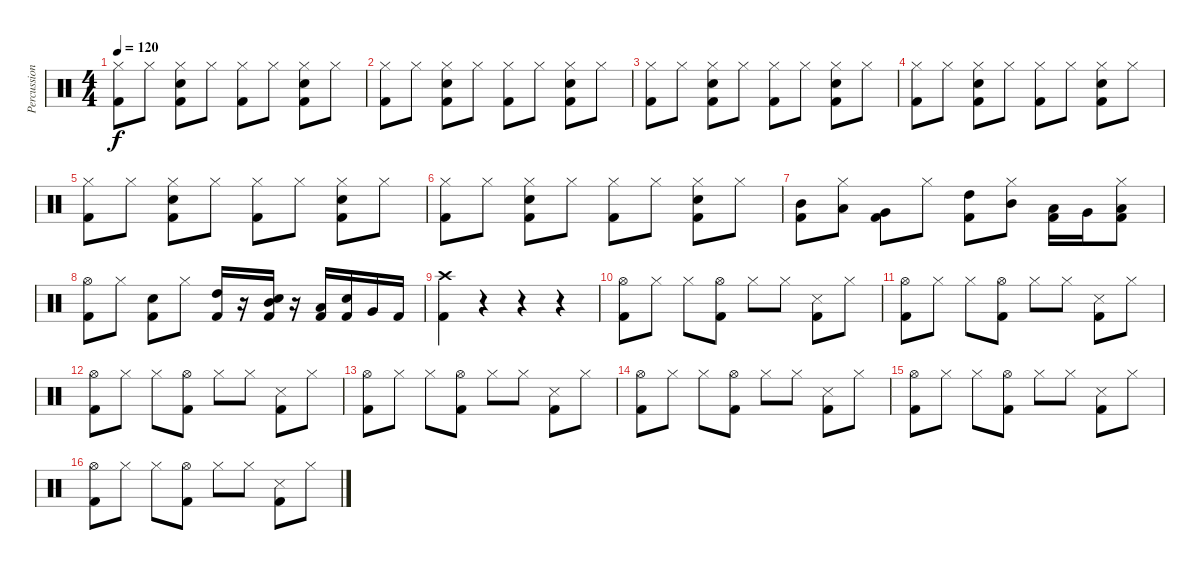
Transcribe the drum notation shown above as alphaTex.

\track ("Percussion" "Percussion") {instrument percussion}
\staff {score}
\articulation defaults
\ts (4 4)
\tempo 120
\clef neutral
\ks c
("Hi-Hat (closed)" "Kick (hit) 2").8{dy f} "Hi-Hat (closed)".8 ("Hi-Hat (closed)" "Snare (hit) 2" "Kick (hit) 2").8 "Hi-Hat (closed)".8 ("Hi-Hat (closed)" "Kick (hit) 2").8 "Hi-Hat (closed)".8 ("Hi-Hat (closed)" "Snare (hit) 2" "Kick (hit) 2").8 "Hi-Hat (closed)".8 |
("Hi-Hat (closed)" "Kick (hit) 2").8 "Hi-Hat (closed)".8 ("Hi-Hat (closed)" "Snare (hit) 2" "Kick (hit) 2").8 "Hi-Hat (closed)".8 ("Hi-Hat (closed)" "Kick (hit) 2").8 "Hi-Hat (closed)".8 ("Hi-Hat (closed)" "Snare (hit) 2" "Kick (hit) 2").8 "Hi-Hat (closed)".8 |
("Hi-Hat (closed)" "Kick (hit) 2").8 "Hi-Hat (closed)".8 ("Hi-Hat (closed)" "Snare (hit) 2" "Kick (hit) 2").8 "Hi-Hat (closed)".8 ("Hi-Hat (closed)" "Kick (hit) 2").8 "Hi-Hat (closed)".8 ("Hi-Hat (closed)" "Snare (hit) 2" "Kick (hit) 2").8 "Hi-Hat (closed)".8 |
("Hi-Hat (closed)" "Kick (hit) 2").8 "Hi-Hat (closed)".8 ("Hi-Hat (closed)" "Snare (hit) 2" "Kick (hit) 2").8 "Hi-Hat (closed)".8 ("Hi-Hat (closed)" "Kick (hit) 2").8 "Hi-Hat (closed)".8 ("Hi-Hat (closed)" "Snare (hit) 2" "Kick (hit) 2").8 "Hi-Hat (closed)".8 |
("Hi-Hat (closed)" "Kick (hit) 2").8 "Hi-Hat (closed)".8 ("Hi-Hat (closed)" "Snare (hit) 2" "Kick (hit) 2").8 "Hi-Hat (closed)".8 ("Hi-Hat (closed)" "Kick (hit) 2").8 "Hi-Hat (closed)".8 ("Hi-Hat (closed)" "Snare (hit) 2" "Kick (hit) 2").8 "Hi-Hat (closed)".8 |
("Hi-Hat (closed)" "Kick (hit) 2").8 "Hi-Hat (closed)".8 ("Hi-Hat (closed)" "Snare (hit) 2" "Kick (hit) 2").8 "Hi-Hat (closed)".8 ("Hi-Hat (closed)" "Kick (hit) 2").8 "Hi-Hat (closed)".8 ("Hi-Hat (closed)" "Snare (hit) 2" "Kick (hit) 2").8 "Hi-Hat (closed)".8 |
("Mid Tom (hit)" "Kick (hit) 2").8 ("Low Tom (hit)" "Hi-Hat (closed)").8 ("Very Low Tom (hit)" "Kick (hit) 2").8 "Hi-Hat (closed)".8 ("High Tom (hit)" "Kick (hit) 2").8 ("Mid Tom (hit)" "Hi-Hat (closed)").8 ("Low Tom (hit)" "Kick (hit) 2").16 "Very Low Tom (hit)".16 ("Low Floor Tom (hit)" "Hi-Hat (closed)" "Kick (hit) 2").8 |
("Hi-Hat (open)" "Kick (hit) 2").8 "Hi-Hat (closed)".8 ("Snare (hit) 2" "Kick (hit) 2").8 "Hi-Hat (closed)".8 ("High Tom (hit)" "Kick (hit) 2").16 r.16 ("Mid Tom (hit)" "Snare (hit) 2" "Kick (hit) 2").16 r.16 ("Low Tom (hit)" "Kick (hit) 2").16 ("Snare (hit) 2" "Kick (hit) 2").16 "Very Low Tom (hit)".16 "Kick (hit) 2".16 |
("Crash high (hit)" "Kick (hit) 2").4 r.4 r.4 r.4 |
("Hi-Hat (open)" "Kick (hit) 2").8 "Hi-Hat (closed)".8 "Hi-Hat (closed)".8 ("Hi-Hat (open)" "Kick (hit) 2").8 "Hi-Hat (closed)".8 "Hi-Hat (closed)".8 ("Snare (side stick) 3" "Kick (hit) 2").8 "Hi-Hat (closed)".8 |
("Hi-Hat (open)" "Kick (hit) 2").8 "Hi-Hat (closed)".8 "Hi-Hat (closed)".8 ("Hi-Hat (open)" "Kick (hit) 2").8 "Hi-Hat (closed)".8 "Hi-Hat (closed)".8 ("Snare (side stick) 3" "Kick (hit) 2").8 "Hi-Hat (closed)".8 |
("Hi-Hat (open)" "Kick (hit) 2").8 "Hi-Hat (closed)".8 "Hi-Hat (closed)".8 ("Hi-Hat (open)" "Kick (hit) 2").8 "Hi-Hat (closed)".8 "Hi-Hat (closed)".8 ("Snare (side stick) 3" "Kick (hit) 2").8 "Hi-Hat (closed)".8 |
("Hi-Hat (open)" "Kick (hit) 2").8 "Hi-Hat (closed)".8 "Hi-Hat (closed)".8 ("Hi-Hat (open)" "Kick (hit) 2").8 "Hi-Hat (closed)".8 "Hi-Hat (closed)".8 ("Snare (side stick) 3" "Kick (hit) 2").8 "Hi-Hat (closed)".8 |
("Hi-Hat (open)" "Kick (hit) 2").8 "Hi-Hat (closed)".8 "Hi-Hat (closed)".8 ("Hi-Hat (open)" "Kick (hit) 2").8 "Hi-Hat (closed)".8 "Hi-Hat (closed)".8 ("Snare (side stick) 3" "Kick (hit) 2").8 "Hi-Hat (closed)".8 |
("Hi-Hat (open)" "Kick (hit) 2").8 "Hi-Hat (closed)".8 "Hi-Hat (closed)".8 ("Hi-Hat (open)" "Kick (hit) 2").8 "Hi-Hat (closed)".8 "Hi-Hat (closed)".8 ("Snare (side stick) 3" "Kick (hit) 2").8 "Hi-Hat (closed)".8 |
("Hi-Hat (open)" "Kick (hit) 2").8 "Hi-Hat (closed)".8 "Hi-Hat (closed)".8 ("Hi-Hat (open)" "Kick (hit) 2").8 "Hi-Hat (closed)".8 "Hi-Hat (closed)".8 ("Snare (side stick) 3" "Kick (hit) 2").8 "Hi-Hat (closed)".8
